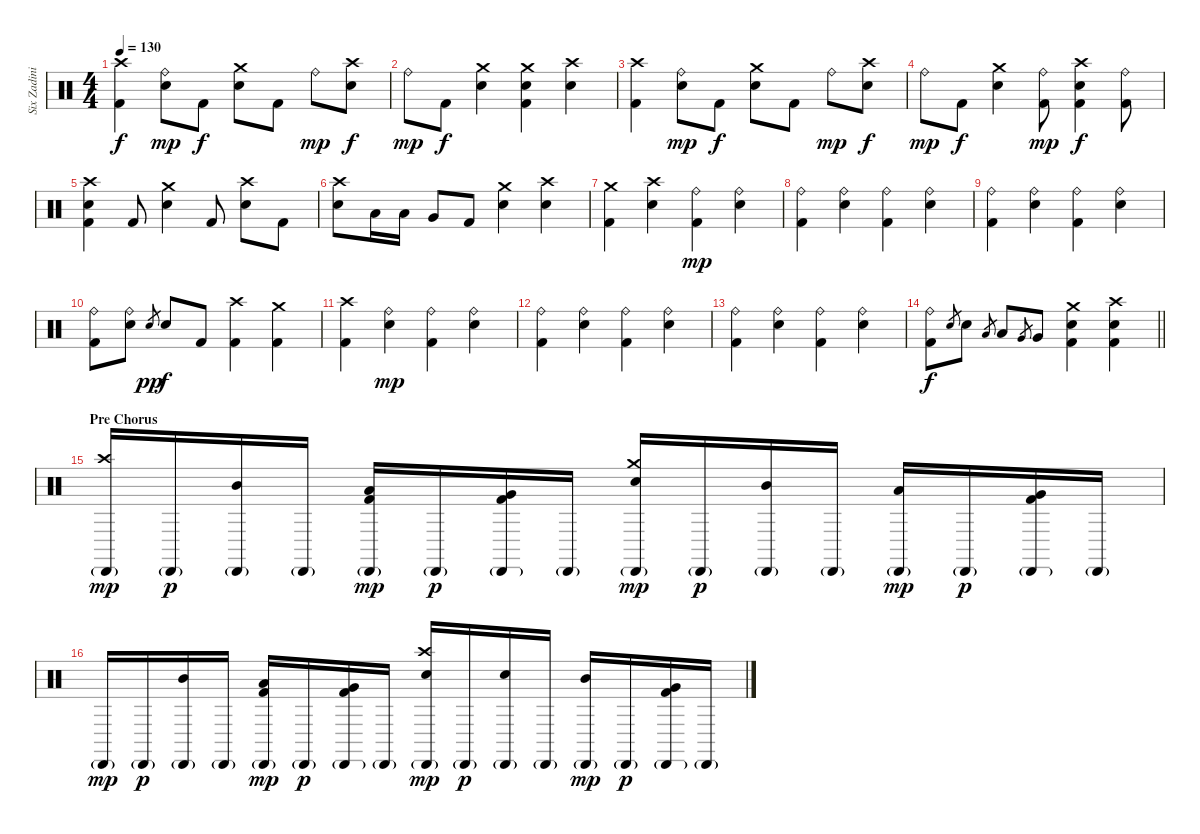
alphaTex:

\track ("Six Zadinia" "Six Zadini") {instrument percussion}
\staff {score}
\articulation defaults
\ts (4 4)
\tempo 130
\clef neutral
\ks c
("Crash high (hit)" "Kick (hit) 2").4{dy f} ("Ride (bell)" "Electric Snare (hit)").8{dy mp} "Kick (hit) 2".8{dy f} ("Crash medium (hit)" "Electric Snare (hit)").8 "Kick (hit) 2".8 "Ride (bell)".8{dy mp} ("Crash high (hit)" "Electric Snare (hit)").8{dy f} |
"Ride (bell)".8{dy mp} "Kick (hit) 2".8{dy f} ("Crash medium (hit)" "Electric Snare (hit)").4 ("Crash medium (hit)" "Electric Snare (hit)" "Kick (hit) 2").4 ("Crash high (hit)" "Electric Snare (hit)").4 |
("Crash high (hit)" "Kick (hit) 2").4 ("Ride (bell)" "Electric Snare (hit)").8{dy mp} "Kick (hit) 2".8{dy f} ("Crash medium (hit)" "Electric Snare (hit)").8 "Kick (hit) 2".8 "Ride (bell)".8{dy mp} ("Crash high (hit)" "Electric Snare (hit)").8{dy f} |
"Ride (bell)".8{dy mp} "Kick (hit) 2".8{dy f} ("Crash medium (hit)" "Electric Snare (hit)").4 ("Ride (bell)" "Kick (hit) 2").8{dy mp} ("Crash high (hit)" "Electric Snare (hit)" "Kick (hit) 2").4{dy f} ("Ride (bell)" "Kick (hit) 2").8 |
("Crash high (hit)" "Electric Snare (hit)" "Kick (hit) 2").4 "Kick (hit) 2".8 ("Crash medium (hit)" "Electric Snare (hit)").4 "Kick (hit) 2".8 ("Crash high (hit)" "Electric Snare (hit)").8 "Kick (hit) 2".8 |
("Crash high (hit)" "Electric Snare (hit)").8 "Low Tom (hit)".16 "Low Tom (hit)".16 "Very Low Tom (hit)".8 "Kick (hit) 2".8 ("Crash medium (hit)" "Electric Snare (hit)").4 ("Crash high (hit)" "Electric Snare (hit)").4 |
("Crash medium (hit)" "Kick (hit) 2").4 ("Crash high (hit)" "Electric Snare (hit)").4 ("Ride (bell)" "Kick (hit) 2").4{dy mp} ("Ride (bell)" "Electric Snare (hit)").4 |
("Ride (bell)" "Kick (hit) 2").4 ("Ride (bell)" "Electric Snare (hit)").4 ("Ride (bell)" "Kick (hit) 2").4 ("Ride (bell)" "Electric Snare (hit)").4 |
("Ride (bell)" "Kick (hit) 2").4 ("Ride (bell)" "Electric Snare (hit)").4 ("Ride (bell)" "Kick (hit) 2").4 ("Ride (bell)" "Electric Snare (hit)").4 |
("Ride (bell)" "Kick (hit) 2").8 ("Ride (bell)" "Electric Snare (hit)").8 "Electric Snare (hit)".8{gr dy pp} "Electric Snare (hit)".8{dy f} "Kick (hit) 2".8 ("Crash high (hit)" "Kick (hit) 2").4 ("Crash medium (hit)" "Kick (hit) 2").4 |
("Crash high (hit)" "Kick (hit) 2").4 ("Ride (bell)" "Electric Snare (hit)").4{dy mp} ("Ride (bell)" "Kick (hit) 2").4 ("Ride (bell)" "Electric Snare (hit)").4 |
("Ride (bell)" "Kick (hit) 2").4 ("Ride (bell)" "Electric Snare (hit)").4 ("Ride (bell)" "Kick (hit) 2").4 ("Ride (bell)" "Electric Snare (hit)").4 |
("Ride (bell)" "Kick (hit) 2").4 ("Ride (bell)" "Electric Snare (hit)").4 ("Ride (bell)" "Kick (hit) 2").4 ("Ride (bell)" "Electric Snare (hit)").4 |
\barLineRight lightlight
("Ride (bell)" "Kick (hit) 2").8{dy f} "Electric Snare (hit)".8{gr} "Electric Snare (hit)".8 "Low Tom (hit)".8{gr} "Low Tom (hit)".8 "Very Low Tom (hit)"{h}.8{gr} "Very Low Tom (hit)".8 ("Crash medium (hit)" "Electric Snare (hit)" "Kick (hit) 2").4 ("Crash high (hit)" "Electric Snare (hit)" "Kick (hit) 2").4 |
\section ("" "Pre Chorus")
("Crash high (hit)" "Cabasa (hit)"{g}).16{dy mp} "Cabasa (hit)"{g}.16{dy p} ("Mid Tom (hit)" "Cabasa (hit)"{g}).16 "Cabasa (hit)"{g}.16 ("Low Tom (hit)" "Cabasa (hit)"{g} "Kick (hit) 2").16{dy mp} "Cabasa (hit)"{g}.16{dy p} ("Very Low Tom (hit)" "Cabasa (hit)"{g} "Kick (hit) 2").16 "Cabasa (hit)"{g}.16 ("Crash medium (hit)" "Electric Snare (hit)" "Cabasa (hit)"{g}).16{dy mp} "Cabasa (hit)"{g}.16{dy p} ("Mid Tom (hit)" "Cabasa (hit)"{g}).16 "Cabasa (hit)"{g}.16 ("Low Tom (hit)" "Cabasa (hit)"{g}).16{dy mp} "Cabasa (hit)"{g}.16{dy p} ("Very Low Tom (hit)" "Cabasa (hit)"{g} "Kick (hit) 2").16 "Cabasa (hit)"{g}.16 |
"Cabasa (hit)"{g}.16{dy mp} "Cabasa (hit)"{g}.16{dy p} ("Mid Tom (hit)" "Cabasa (hit)"{g}).16 "Cabasa (hit)"{g}.16 ("Low Tom (hit)" "Cabasa (hit)"{g} "Kick (hit) 2").16{dy mp} "Cabasa (hit)"{g}.16{dy p} ("Very Low Tom (hit)" "Cabasa (hit)"{g} "Kick (hit) 2").16 "Cabasa (hit)"{g}.16 ("Crash high (hit)" "Electric Snare (hit)" "Cabasa (hit)"{g}).16{dy mp} "Cabasa (hit)"{g}.16{dy p} ("Electric Snare (hit)" "Cabasa (hit)"{g}).16 "Cabasa (hit)"{g}.16 ("Mid Tom (hit)" "Cabasa (hit)"{g}).16{dy mp} "Cabasa (hit)"{g}.16{dy p} ("Very Low Tom (hit)" "Cabasa (hit)"{g} "Kick (hit) 2").16 "Cabasa (hit)"{g}.16
